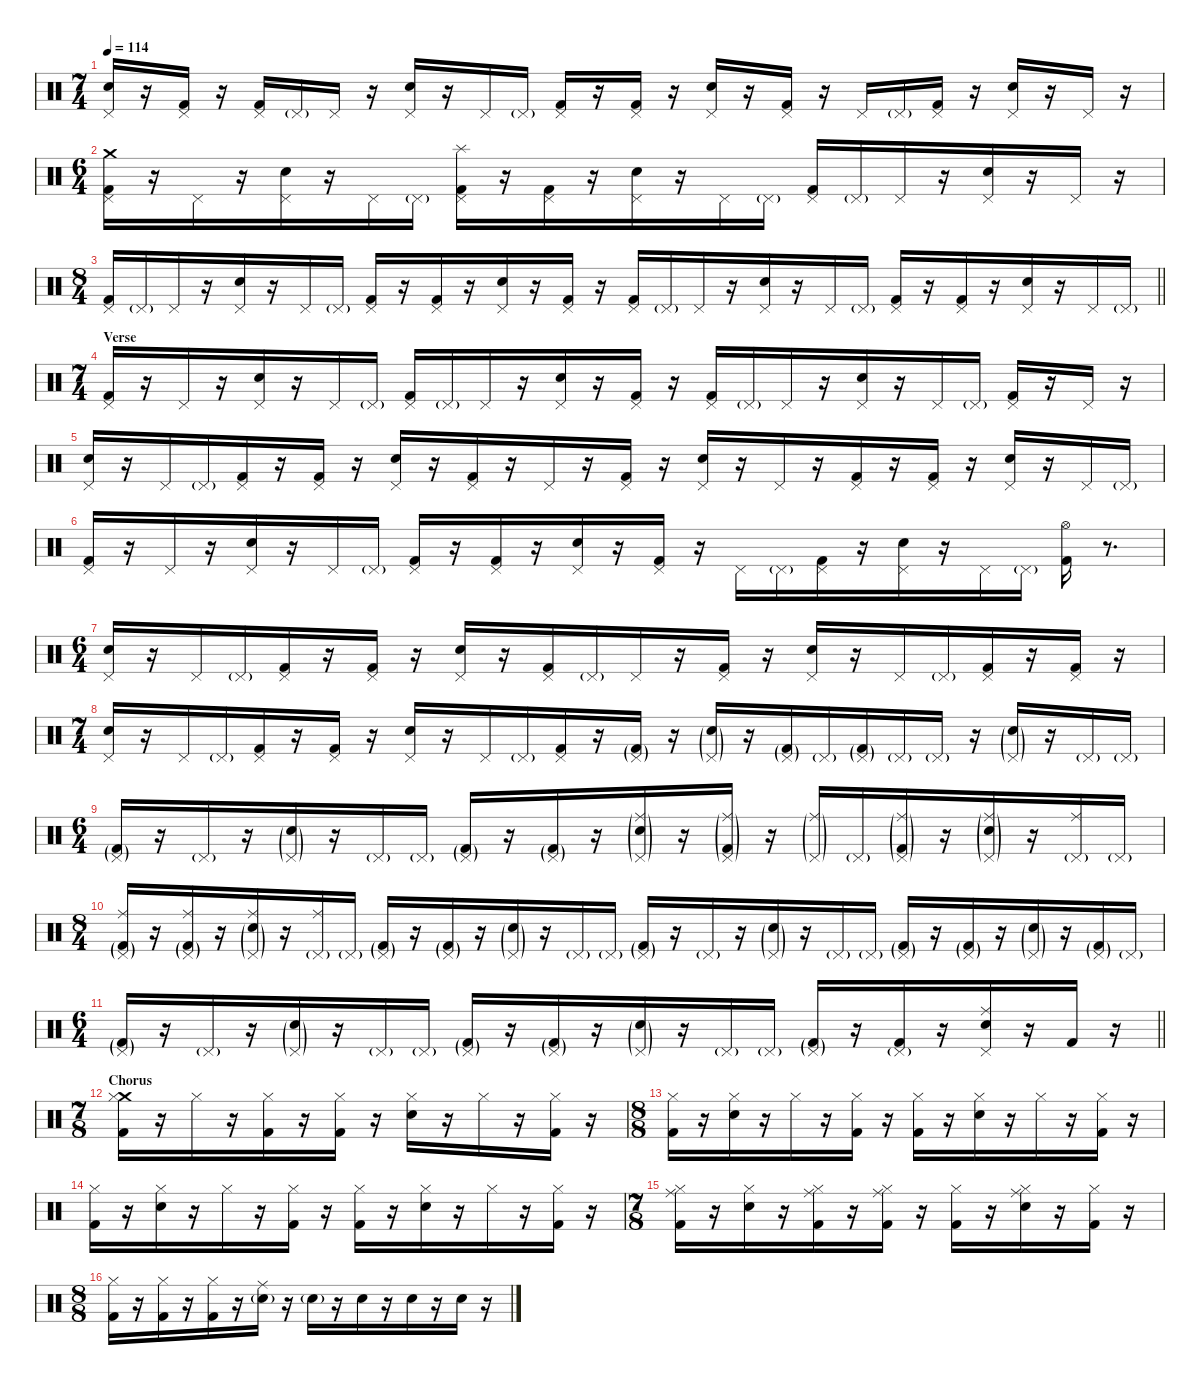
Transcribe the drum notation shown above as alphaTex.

\defaultSystemsLayout 4
\hideDynamics
\bracketExtendMode nobrackets
\singleTrackTrackNamePolicy hidden
\multiTrackTrackNamePolicy hidden
\firstSystemTrackNameMode fullname
\firstSystemTrackNameOrientation horizontal
\otherSystemsTrackNameOrientation horizontal
\track ("Drums" "drm.") {instrument percussion}
\staff {score}
\articulation defaults
\ts (7 4)
\tempo 114
\clef neutral
\ks c
("Pedal Hi-Hat (hit)" "Snare (hit) 2").16{dy f beam Up} r.16{beam Up} ("Pedal Hi-Hat (hit)" "Kick (hit) 2").16{beam Up} r.16{beam Up} ("Pedal Hi-Hat (hit)" "Kick (hit) 2").16{beam Up} "Pedal Hi-Hat (hit)"{g}.16{dy mf beam Up} "Pedal Hi-Hat (hit)".16{dy f beam Up} r.16{beam Up} ("Pedal Hi-Hat (hit)" "Snare (hit) 2").16{beam Up} r.16{beam Up} "Pedal Hi-Hat (hit)".16{beam Up} "Pedal Hi-Hat (hit)"{g}.16{dy mf beam Up} ("Pedal Hi-Hat (hit)" "Kick (hit) 2").16{dy f beam Up} r.16{beam Up} ("Pedal Hi-Hat (hit)" "Kick (hit) 2").16{beam Up} r.16{beam Up} ("Pedal Hi-Hat (hit)" "Snare (hit) 2").16{beam Up} r.16{beam Up} ("Pedal Hi-Hat (hit)" "Kick (hit) 2").16{beam Up} r.16{beam Up} "Pedal Hi-Hat (hit)".16{beam Up} "Pedal Hi-Hat (hit)"{g}.16{dy mf beam Up} ("Pedal Hi-Hat (hit)" "Kick (hit) 2").16{dy f beam Up} r.16{beam Up} ("Pedal Hi-Hat (hit)" "Snare (hit) 2").16{beam Up} r.16{beam Up} "Pedal Hi-Hat (hit)".16{beam Up} r.16{beam Up} |
\ts (6 4)
\beaming (8 4 4 4 4)
("Crash medium (hit)" "Pedal Hi-Hat (hit)" "Kick (hit) 2").16{beam Down} r.16{beam Down} "Pedal Hi-Hat (hit)".16{beam Down} r.16{beam Down} ("Pedal Hi-Hat (hit)" "Snare (hit) 2").16{beam Down} r.16{beam Down} "Pedal Hi-Hat (hit)".16{beam Down} "Pedal Hi-Hat (hit)"{g}.16{dy mf beam Down} ("Splash (hit)" "Pedal Hi-Hat (hit)" "Kick (hit) 2").16{dy f beam Down} r.16{beam Down} ("Pedal Hi-Hat (hit)" "Kick (hit) 2").16{beam Down} r.16{beam Down} ("Pedal Hi-Hat (hit)" "Snare (hit) 2").16{beam Down} r.16{beam Down} "Pedal Hi-Hat (hit)".16{beam Down} "Pedal Hi-Hat (hit)"{g}.16{dy mf beam Down} ("Pedal Hi-Hat (hit)" "Kick (hit) 2").16{dy f beam Up} "Pedal Hi-Hat (hit)"{g}.16{dy mf beam Up} "Pedal Hi-Hat (hit)".16{dy f beam Up} r.16{beam Up} ("Pedal Hi-Hat (hit)" "Snare (hit) 2").16{beam Up} r.16{beam Up} "Pedal Hi-Hat (hit)".16{beam Up} r.16{beam Up} |
\ts (8 4)
\beaming (8 4 4 4 4)
\barLineRight lightlight
("Pedal Hi-Hat (hit)" "Kick (hit) 2").16{beam Up} "Pedal Hi-Hat (hit)"{g}.16{dy mf beam Up} "Pedal Hi-Hat (hit)".16{dy f beam Up} r.16{beam Up} ("Pedal Hi-Hat (hit)" "Snare (hit) 2").16{beam Up} r.16{beam Up} "Pedal Hi-Hat (hit)".16{beam Up} "Pedal Hi-Hat (hit)"{g}.16{dy mf beam Up} ("Pedal Hi-Hat (hit)" "Kick (hit) 2").16{dy f beam Up} r.16{beam Up} ("Pedal Hi-Hat (hit)" "Kick (hit) 2").16{beam Up} r.16{beam Up} ("Pedal Hi-Hat (hit)" "Snare (hit) 2").16{beam Up} r.16{beam Up} ("Pedal Hi-Hat (hit)" "Kick (hit) 2").16{beam Up} r.16{beam Up} ("Pedal Hi-Hat (hit)" "Kick (hit) 2").16{beam Up} "Pedal Hi-Hat (hit)"{g}.16{dy mf beam Up} "Pedal Hi-Hat (hit)".16{dy f beam Up} r.16{beam Up} ("Pedal Hi-Hat (hit)" "Snare (hit) 2").16{beam Up} r.16{beam Up} "Pedal Hi-Hat (hit)".16{beam Up} "Pedal Hi-Hat (hit)"{g}.16{dy mf beam Up} ("Pedal Hi-Hat (hit)" "Kick (hit) 2").16{dy f beam Up} r.16{beam Up} ("Pedal Hi-Hat (hit)" "Kick (hit) 2").16{beam Up} r.16{beam Up} ("Pedal Hi-Hat (hit)" "Snare (hit) 2").16{beam Up} r.16{beam Up} "Pedal Hi-Hat (hit)".16{beam Up} "Pedal Hi-Hat (hit)"{g}.16{dy mf beam Up} |
\ts (7 4)
\beaming (8 4 4 4 4)
\section ("" "Verse")
("Pedal Hi-Hat (hit)" "Kick (hit) 2").16{dy f beam Up} r.16{beam Up} "Pedal Hi-Hat (hit)".16{beam Up} r.16{beam Up} ("Pedal Hi-Hat (hit)" "Snare (hit) 2").16{beam Up} r.16{beam Up} "Pedal Hi-Hat (hit)".16{beam Up} "Pedal Hi-Hat (hit)"{g}.16{dy mf beam Up} ("Pedal Hi-Hat (hit)" "Kick (hit) 2").16{dy f beam Up} "Pedal Hi-Hat (hit)"{g}.16{dy mf beam Up} "Pedal Hi-Hat (hit)".16{dy f beam Up} r.16{beam Up} ("Pedal Hi-Hat (hit)" "Snare (hit) 2").16{beam Up} r.16{beam Up} ("Pedal Hi-Hat (hit)" "Kick (hit) 2").16{beam Up} r.16{beam Up} ("Pedal Hi-Hat (hit)" "Kick (hit) 2").16{beam Up} "Pedal Hi-Hat (hit)"{g}.16{dy mf beam Up} "Pedal Hi-Hat (hit)".16{dy f beam Up} r.16{beam Up} ("Pedal Hi-Hat (hit)" "Snare (hit) 2").16{beam Up} r.16{beam Up} "Pedal Hi-Hat (hit)".16{beam Up} "Pedal Hi-Hat (hit)"{g}.16{dy mf beam Up} ("Pedal Hi-Hat (hit)" "Kick (hit) 2").16{dy f beam Up} r.16{beam Up} "Pedal Hi-Hat (hit)".16{beam Up} r.16{beam Up} |
("Pedal Hi-Hat (hit)" "Snare (hit) 2").16{beam Up} r.16{beam Up} "Pedal Hi-Hat (hit)".16{beam Up} "Pedal Hi-Hat (hit)"{g}.16{dy mf beam Up} ("Pedal Hi-Hat (hit)" "Kick (hit) 2").16{dy f beam Up} r.16{beam Up} ("Pedal Hi-Hat (hit)" "Kick (hit) 2").16{beam Up} r.16{beam Up} ("Pedal Hi-Hat (hit)" "Snare (hit) 2").16{beam Up} r.16{beam Up} ("Pedal Hi-Hat (hit)" "Kick (hit) 2").16{beam Up} r.16{beam Up} "Pedal Hi-Hat (hit)".16{beam Up} r.16{beam Up} ("Pedal Hi-Hat (hit)" "Kick (hit) 2").16{beam Up} r.16{beam Up} ("Pedal Hi-Hat (hit)" "Snare (hit) 2").16{beam Up} r.16{beam Up} "Pedal Hi-Hat (hit)".16{beam Up} r.16{beam Up} ("Pedal Hi-Hat (hit)" "Kick (hit) 2").16{beam Up} r.16{beam Up} ("Pedal Hi-Hat (hit)" "Kick (hit) 2").16{beam Up} r.16{beam Up} ("Pedal Hi-Hat (hit)" "Snare (hit) 2").16{beam Up} r.16{beam Up} "Pedal Hi-Hat (hit)".16{beam Up} "Pedal Hi-Hat (hit)"{g}.16{dy mf beam Up} |
("Pedal Hi-Hat (hit)" "Kick (hit) 2").16{dy f beam Up} r.16{beam Up} "Pedal Hi-Hat (hit)".16{beam Up} r.16{beam Up} ("Pedal Hi-Hat (hit)" "Snare (hit) 2").16{beam Up} r.16{beam Up} "Pedal Hi-Hat (hit)".16{beam Up} "Pedal Hi-Hat (hit)"{g}.16{dy mf beam Up} ("Pedal Hi-Hat (hit)" "Kick (hit) 2").16{dy f beam Up} r.16{beam Up} ("Pedal Hi-Hat (hit)" "Kick (hit) 2").16{beam Up} r.16{beam Up} ("Pedal Hi-Hat (hit)" "Snare (hit) 2").16{beam Up} r.16{beam Up} ("Pedal Hi-Hat (hit)" "Kick (hit) 2").16{beam Up} r.16{beam Down} "Pedal Hi-Hat (hit)".16{beam Down} "Pedal Hi-Hat (hit)"{g}.16{dy mf beam Down} ("Pedal Hi-Hat (hit)" "Kick (hit) 2").16{dy f beam Down} r.16{beam Down} ("Pedal Hi-Hat (hit)" "Snare (hit) 2").16{beam Down} r.16{beam Down} "Pedal Hi-Hat (hit)".16{beam Down} "Pedal Hi-Hat (hit)"{g}.16{dy mf beam Down} ("Hi-Hat (open)" "Kick (hit) 2").16{dy f beam Down} r.8{d beam Down} |
\ts (6 4)
\beaming (8 4 4 4 4)
("Pedal Hi-Hat (hit)" "Snare (hit) 2").16{beam Up} r.16{beam Up} "Pedal Hi-Hat (hit)".16{beam Up} "Pedal Hi-Hat (hit)"{g}.16{dy mf beam Up} ("Pedal Hi-Hat (hit)" "Kick (hit) 2").16{dy f beam Up} r.16{beam Up} ("Pedal Hi-Hat (hit)" "Kick (hit) 2").16{beam Up} r.16{beam Up} ("Pedal Hi-Hat (hit)" "Snare (hit) 2").16{beam Up} r.16{beam Up} ("Pedal Hi-Hat (hit)" "Kick (hit) 2").16{beam Up} "Pedal Hi-Hat (hit)"{g}.16{dy mf beam Up} "Pedal Hi-Hat (hit)".16{dy f beam Up} r.16{beam Up} ("Pedal Hi-Hat (hit)" "Kick (hit) 2").16{beam Up} r.16{beam Up} ("Pedal Hi-Hat (hit)" "Snare (hit) 2").16{beam Up} r.16{beam Up} "Pedal Hi-Hat (hit)".16{beam Up} "Pedal Hi-Hat (hit)"{g}.16{dy mf beam Up} ("Pedal Hi-Hat (hit)" "Kick (hit) 2").16{dy f beam Up} r.16{beam Up} ("Pedal Hi-Hat (hit)" "Kick (hit) 2").16{beam Up} r.16{beam Up} |
\ts (7 4)
\beaming (8 4 4 4 4)
("Pedal Hi-Hat (hit)" "Snare (hit) 2").16{beam Up} r.16{beam Up} "Pedal Hi-Hat (hit)".16{beam Up} "Pedal Hi-Hat (hit)"{g}.16{dy mf beam Up} ("Pedal Hi-Hat (hit)" "Kick (hit) 2").16{dy f beam Up} r.16{beam Up} ("Pedal Hi-Hat (hit)" "Kick (hit) 2").16{beam Up} r.16{beam Up} ("Pedal Hi-Hat (hit)" "Snare (hit) 2").16{beam Up} r.16{beam Up} "Pedal Hi-Hat (hit)".16{beam Up} "Pedal Hi-Hat (hit)"{g}.16{dy mf beam Up} ("Pedal Hi-Hat (hit)" "Kick (hit) 2").16{dy f beam Up} r.16{beam Up} ("Pedal Hi-Hat (hit)"{g} "Kick (hit) 2"{g}).16{dy mf beam Up} r.16{beam Up} ("Pedal Hi-Hat (hit)"{g} "Snare (hit) 2"{g}).16{beam Up} r.16{beam Up} ("Pedal Hi-Hat (hit)"{g} "Kick (hit) 2"{g}).16{beam Up} "Pedal Hi-Hat (hit)"{g}.16{dy p beam Up} ("Pedal Hi-Hat (hit)"{g} "Kick (hit) 2"{g}).16{dy mf beam Up} "Pedal Hi-Hat (hit)"{g}.16{dy p beam Up} "Pedal Hi-Hat (hit)"{g}.16{dy mf beam Up} r.16{beam Up} ("Pedal Hi-Hat (hit)"{g} "Snare (hit) 2"{g}).16{beam Up} r.16{beam Up} "Pedal Hi-Hat (hit)"{g}.16{beam Up} "Pedal Hi-Hat (hit)"{g}.16{dy p beam Up} |
\ts (6 4)
\beaming (8 4 4 4 4)
("Pedal Hi-Hat (hit)"{g} "Kick (hit) 2"{g}).16{dy mf beam Up} r.16{beam Up} "Pedal Hi-Hat (hit)"{g}.16{beam Up} r.16{beam Up} ("Pedal Hi-Hat (hit)"{g} "Snare (hit) 2"{g}).16{beam Up} r.16{beam Up} "Pedal Hi-Hat (hit)"{g}.16{beam Up} "Pedal Hi-Hat (hit)"{g}.16{dy p beam Up} ("Pedal Hi-Hat (hit)"{g} "Kick (hit) 2"{g}).16{dy mf beam Up} r.16{beam Up} ("Pedal Hi-Hat (hit)"{g} "Kick (hit) 2"{g}).16{beam Up} r.16{beam Up} ("Ride (middle)"{g} "Pedal Hi-Hat (hit)"{g} "Snare (hit) 2"{g}).16{beam Up} r.16{beam Up} ("Ride (middle)"{g} "Pedal Hi-Hat (hit)"{g} "Kick (hit) 2"{g}).16{beam Up} r.16{beam Up} ("Ride (middle)"{g} "Pedal Hi-Hat (hit)"{g}).16{beam Up} "Pedal Hi-Hat (hit)"{g}.16{dy p beam Up} ("Ride (middle)"{g} "Pedal Hi-Hat (hit)"{g} "Kick (hit) 2"{g}).16{dy mf beam Up} r.16{beam Up} ("Ride (middle)"{g} "Pedal Hi-Hat (hit)"{g} "Snare (hit) 2"{g}).16{beam Up} r.16{beam Up} ("Ride (middle)" "Pedal Hi-Hat (hit)"{g}).16{dy f beam Up} "Pedal Hi-Hat (hit)"{g}.16{dy p beam Up} |
\ts (8 4)
\beaming (8 4 4 4 4)
("Ride (middle)" "Pedal Hi-Hat (hit)"{g} "Kick (hit) 2"{g}).16{dy f beam Up} r.16{beam Up} ("Ride (middle)" "Pedal Hi-Hat (hit)"{g} "Kick (hit) 2"{g}).16{beam Up} r.16{beam Up} ("Ride (middle)" "Pedal Hi-Hat (hit)"{g} "Snare (hit) 2"{g}).16{beam Up} r.16{beam Up} ("Ride (middle)" "Pedal Hi-Hat (hit)"{g}).16{beam Up} "Pedal Hi-Hat (hit)"{g}.16{dy p beam Up} ("Pedal Hi-Hat (hit)"{g} "Kick (hit) 2"{g}).16{dy mf beam Up} r.16{beam Up} ("Pedal Hi-Hat (hit)"{g} "Kick (hit) 2"{g}).16{beam Up} r.16{beam Up} ("Pedal Hi-Hat (hit)"{g} "Snare (hit) 2"{g}).16{beam Up} r.16{beam Up} "Pedal Hi-Hat (hit)"{g}.16{beam Up} "Pedal Hi-Hat (hit)"{g}.16{dy p beam Up} ("Pedal Hi-Hat (hit)"{g} "Kick (hit) 2"{g}).16{dy mf beam Up} r.16{beam Up} "Pedal Hi-Hat (hit)"{g}.16{beam Up} r.16{beam Up} ("Pedal Hi-Hat (hit)"{g} "Snare (hit) 2"{g}).16{beam Up} r.16{beam Up} "Pedal Hi-Hat (hit)"{g}.16{beam Up} "Pedal Hi-Hat (hit)"{g}.16{dy p beam Up} ("Pedal Hi-Hat (hit)"{g} "Kick (hit) 2"{g}).16{dy mf beam Up} r.16{beam Up} ("Pedal Hi-Hat (hit)"{g} "Kick (hit) 2"{g}).16{beam Up} r.16{beam Up} ("Pedal Hi-Hat (hit)"{g} "Snare (hit) 2"{g}).16{beam Up} r.16{beam Up} ("Pedal Hi-Hat (hit)"{g} "Kick (hit) 2"{g}).16{beam Up} "Pedal Hi-Hat (hit)"{g}.16{dy p beam Up} |
\ts (6 4)
\beaming (8 4 4 4 4)
\barLineRight lightlight
("Pedal Hi-Hat (hit)"{g} "Kick (hit) 2"{g}).16{dy mf beam Up} r.16{beam Up} "Pedal Hi-Hat (hit)"{g}.16{beam Up} r.16{beam Up} ("Pedal Hi-Hat (hit)"{g} "Snare (hit) 2"{g}).16{beam Up} r.16{beam Up} "Pedal Hi-Hat (hit)"{g}.16{beam Up} "Pedal Hi-Hat (hit)"{g}.16{dy p beam Up} ("Pedal Hi-Hat (hit)"{g} "Kick (hit) 2"{g}).16{dy mf beam Up} r.16{beam Up} ("Pedal Hi-Hat (hit)"{g} "Kick (hit) 2"{g}).16{beam Up} r.16{beam Up} ("Pedal Hi-Hat (hit)"{g} "Snare (hit) 2"{g}).16{beam Up} r.16{beam Up} "Pedal Hi-Hat (hit)"{g}.16{beam Up} "Pedal Hi-Hat (hit)"{g}.16{dy p beam Up} ("Pedal Hi-Hat (hit)"{g} "Kick (hit) 2"{g}).16{dy mf beam Up} r.16{beam Up} ("Pedal Hi-Hat (hit)"{g} "Kick (hit) 2").16{dy f beam Up} r.16{beam Up} ("Ride (middle)" "Pedal Hi-Hat (hit)" "Snare (hit) 2").16{beam Up} r.16{beam Up} "Kick (hit) 2".16{beam Up} r.16{beam Up} |
\ts (7 8)
\beaming (8 4 4 4 4)
\section ("" "Chorus")
("Crash medium (hit)" "Hi-Hat (closed)" "Kick (hit) 2").16{beam Down} r.16{beam Down} "Hi-Hat (closed)".16{beam Down} r.16{beam Down} ("Hi-Hat (closed)" "Kick (hit) 2").16{beam Down} r.16{beam Down} ("Hi-Hat (closed)" "Kick (hit) 2").16{beam Down} r.16{beam Down} ("Hi-Hat (closed)" "Snare (hit) 2").16{beam Down} r.16{beam Down} "Hi-Hat (closed)".16{beam Down} r.16{beam Down} ("Hi-Hat (closed)" "Kick (hit) 2").16{beam Down} r.16{beam Down} |
\ts (8 8)
\beaming (8 4 4 4 4)
("Hi-Hat (closed)" "Kick (hit) 2").16{beam Down} r.16{beam Down} ("Hi-Hat (closed)" "Snare (hit) 2").16{beam Down} r.16{beam Down} "Hi-Hat (closed)".16{beam Down} r.16{beam Down} ("Hi-Hat (closed)" "Kick (hit) 2").16{beam Down} r.16{beam Down} ("Hi-Hat (closed)" "Kick (hit) 2").16{beam Down} r.16{beam Down} ("Hi-Hat (closed)" "Snare (hit) 2").16{beam Down} r.16{beam Down} "Hi-Hat (closed)".16{beam Down} r.16{beam Down} ("Hi-Hat (closed)" "Kick (hit) 2").16{beam Down} r.16{beam Down} |
("Hi-Hat (closed)" "Kick (hit) 2").16{beam Down} r.16{beam Down} ("Hi-Hat (closed)" "Snare (hit) 2").16{beam Down} r.16{beam Down} "Hi-Hat (closed)".16{beam Down} r.16{beam Down} ("Hi-Hat (closed)" "Kick (hit) 2").16{beam Down} r.16{beam Down} ("Hi-Hat (closed)" "Kick (hit) 2").16{beam Down} r.16{beam Down} ("Hi-Hat (closed)" "Snare (hit) 2").16{beam Down} r.16{beam Down} "Hi-Hat (closed)".16{beam Down} r.16{beam Down} ("Hi-Hat (closed)" "Kick (hit) 2").16{beam Down} r.16{beam Down} |
\ts (7 8)
\beaming (8 4 4 4 4)
("Ride (middle)" "Hi-Hat (closed)" "Kick (hit) 2").16{beam Down} r.16{beam Down} ("Hi-Hat (closed)" "Snare (hit) 2").16{beam Down} r.16{beam Down} ("Ride (middle)" "Hi-Hat (closed)" "Kick (hit) 2").16{beam Down} r.16{beam Down} ("Ride (middle)" "Hi-Hat (closed)" "Kick (hit) 2").16{beam Down} r.16{beam Down} ("Hi-Hat (closed)" "Kick (hit) 2").16{beam Down} r.16{beam Down} ("Ride (middle)" "Hi-Hat (closed)" "Snare (hit) 2").16{beam Down} r.16{beam Down} ("Hi-Hat (closed)" "Kick (hit) 2").16{beam Down} r.16{beam Down} |
\ts (8 8)
\beaming (8 4 4 4 4)
("Hi-Hat (closed)" "Kick (hit) 2").16{beam Down} r.16{beam Down} ("Hi-Hat (closed)" "Kick (hit) 2").16{beam Down} r.16{beam Down} ("Hi-Hat (closed)" "Kick (hit) 2").16{beam Down} r.16{beam Down} ("Ride (middle)" "Snare (hit) 2"{g}).16{beam Down} r.16{beam Down} "Snare (hit) 2"{g}.16{dy mf beam Down} r.16{beam Down} "Snare (hit) 2".16{dy f beam Down} r.16{beam Down} "Snare (hit) 2".16{beam Down} r.16{beam Down} "Snare (hit) 2".16{beam Down} r.16{beam Down}
